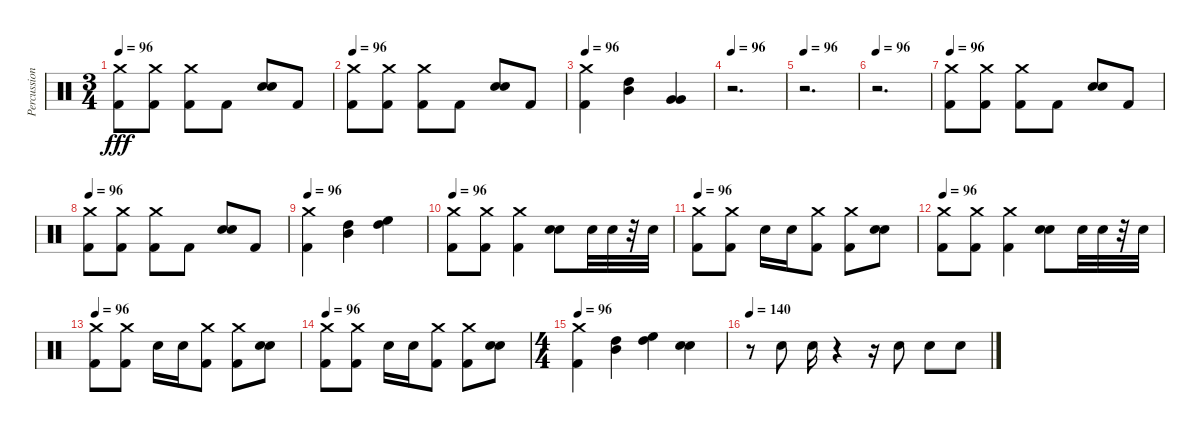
\track ("Percussion" "Percussion") {instrument percussion}
\staff {score}
\articulation defaults
\ts (3 4)
\tempo 96
\clef neutral
\ks c
("Kick (hit) 2" "Crash medium (hit)").8{dy fff} ("Kick (hit) 2" "Crash medium (hit)").8 ("Crash medium (hit)" "Kick (hit) 2").8 "Kick (hit) 2".8 ("Snare (hit) 2" "Snare (hit) 2").8 "Kick (hit) 2".8 |
\tempo 96
("Kick (hit) 2" "Crash medium (hit)").8 ("Kick (hit) 2" "Crash medium (hit)").8 ("Crash medium (hit)" "Kick (hit) 2").8 "Kick (hit) 2".8 ("Snare (hit) 2" "Snare (hit) 2").8 "Kick (hit) 2".8 |
\tempo 96
("Kick (hit) 2" "Crash medium (hit)").4 ("High Tom (hit)" "Mid Tom (hit)").4 ("Very Low Tom (hit)" "Very Low Tom (hit)").4 |
\tempo 96
r.2{d} |
\tempo 96
r.2{d} |
\tempo 96
r.2{d} |
\tempo 96
("Kick (hit) 2" "Crash medium (hit)").8 ("Kick (hit) 2" "Crash medium (hit)").8 ("Crash medium (hit)" "Kick (hit) 2").8 "Kick (hit) 2".8 ("Snare (hit) 2" "Snare (hit) 2").8 "Kick (hit) 2".8 |
\tempo 96
("Kick (hit) 2" "Crash medium (hit)").8 ("Kick (hit) 2" "Crash medium (hit)").8 ("Crash medium (hit)" "Kick (hit) 2").8 "Kick (hit) 2".8 ("Snare (hit) 2" "Snare (hit) 2").8 "Kick (hit) 2".8 |
\tempo 96
("Kick (hit) 2" "Crash medium (hit)").4 ("High Tom (hit)" "Mid Tom (hit)").4 ("High Floor Tom (hit)" "High Tom (hit)").4 |
\tempo 96
("Kick (hit) 2" "Crash medium (hit)").8 ("Kick (hit) 2" "Crash medium (hit)").8 ("Kick (hit) 2" "Crash medium (hit)").4 ("Snare (hit) 2" "Snare (hit) 2").8 "Snare (hit) 2".32 "Snare (hit) 2".32 r.32 "Snare (hit) 2".32 |
\tempo 96
("Kick (hit) 2" "Crash medium (hit)").8 ("Kick (hit) 2" "Crash medium (hit)").8 "Snare (hit) 2".16 "Snare (hit) 2".16 ("Crash medium (hit)" "Kick (hit) 2").8 ("Crash medium (hit)" "Kick (hit) 2").8 ("Snare (hit) 2" "Snare (hit) 2").8 |
\tempo 96
("Kick (hit) 2" "Crash medium (hit)").8 ("Kick (hit) 2" "Crash medium (hit)").8 ("Kick (hit) 2" "Crash medium (hit)").4 ("Snare (hit) 2" "Snare (hit) 2").8 "Snare (hit) 2".32 "Snare (hit) 2".32 r.32 "Snare (hit) 2".32 |
\tempo 96
("Kick (hit) 2" "Crash medium (hit)").8 ("Kick (hit) 2" "Crash medium (hit)").8 "Snare (hit) 2".16 "Snare (hit) 2".16 ("Crash medium (hit)" "Kick (hit) 2").8 ("Crash medium (hit)" "Kick (hit) 2").8 ("Snare (hit) 2" "Snare (hit) 2").8 |
\tempo 96
("Kick (hit) 2" "Crash medium (hit)").8 ("Kick (hit) 2" "Crash medium (hit)").8 "Snare (hit) 2".16 "Snare (hit) 2".16 ("Crash medium (hit)" "Kick (hit) 2").8 ("Crash medium (hit)" "Kick (hit) 2").8 ("Snare (hit) 2" "Snare (hit) 2").8 |
\ts (4 4)
\tempo 96
("Kick (hit) 2" "Crash medium (hit)").4 ("Mid Tom (hit)" "High Tom (hit)").4 ("High Floor Tom (hit)" "High Tom (hit)").4 ("Snare (hit) 2" "Snare (hit) 2").4 |
\tempo 140
r.8 "Snare (hit) 2".8 "Snare (hit) 2".16 r.4 r.16 "Snare (hit) 2".8 "Snare (hit) 2".8 "Snare (hit) 2".8
